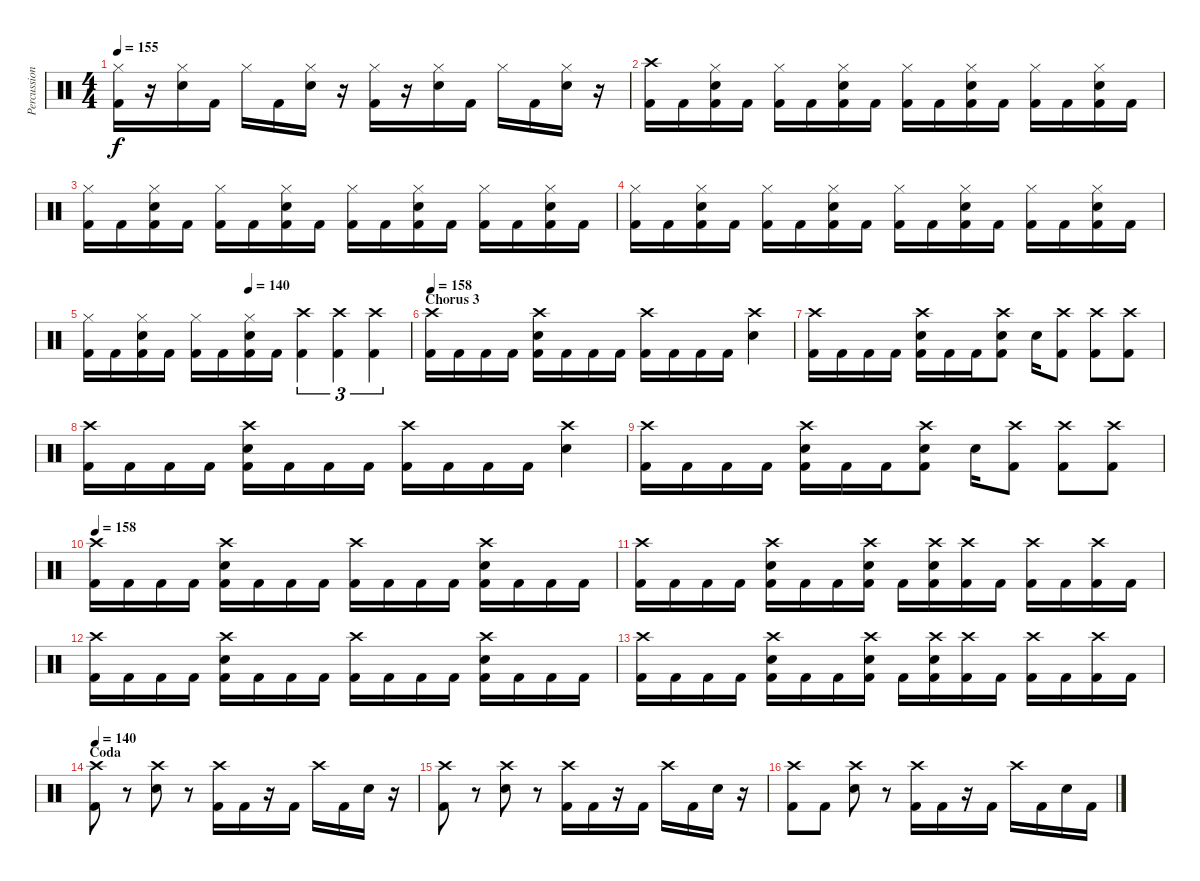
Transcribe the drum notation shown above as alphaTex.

\track ("Percussion" "Percussion") {instrument percussion}
\staff {score}
\articulation defaults
\ts (4 4)
\tempo 155
\clef neutral
\ks c
("Hi-Hat (closed)" "Kick (hit) 2").16{dy f} r.16 ("Hi-Hat (closed)" "Snare (hit) 2").16 "Kick (hit) 2".16 "Hi-Hat (closed)".16 "Kick (hit) 2".16 ("Hi-Hat (closed)" "Snare (hit) 2").16 r.16 ("Hi-Hat (closed)" "Kick (hit) 2").16 r.16 ("Hi-Hat (closed)" "Snare (hit) 2").16 "Kick (hit) 2".16 "Hi-Hat (closed)".16 "Kick (hit) 2".16 ("Hi-Hat (closed)" "Snare (hit) 2").16 r.16 |
("Crash high (hit)" "Kick (hit) 2").16 "Kick (hit) 2".16 ("Hi-Hat (closed)" "Snare (hit) 2" "Kick (hit) 2").16 "Kick (hit) 2".16 ("Hi-Hat (closed)" "Kick (hit) 2").16 "Kick (hit) 2".16 ("Hi-Hat (closed)" "Snare (hit) 2" "Kick (hit) 2").16 "Kick (hit) 2".16 ("Hi-Hat (closed)" "Kick (hit) 2").16 "Kick (hit) 2".16 ("Hi-Hat (closed)" "Snare (hit) 2" "Kick (hit) 2").16 "Kick (hit) 2".16 ("Hi-Hat (closed)" "Kick (hit) 2").16 "Kick (hit) 2".16 ("Hi-Hat (closed)" "Snare (hit) 2" "Kick (hit) 2").16 "Kick (hit) 2".16 |
("Hi-Hat (closed)" "Kick (hit) 2").16 "Kick (hit) 2".16 ("Hi-Hat (closed)" "Snare (hit) 2" "Kick (hit) 2").16 "Kick (hit) 2".16 ("Hi-Hat (closed)" "Kick (hit) 2").16 "Kick (hit) 2".16 ("Hi-Hat (closed)" "Snare (hit) 2" "Kick (hit) 2").16 "Kick (hit) 2".16 ("Hi-Hat (closed)" "Kick (hit) 2").16 "Kick (hit) 2".16 ("Hi-Hat (closed)" "Snare (hit) 2" "Kick (hit) 2").16 "Kick (hit) 2".16 ("Hi-Hat (closed)" "Kick (hit) 2").16 "Kick (hit) 2".16 ("Hi-Hat (closed)" "Snare (hit) 2" "Kick (hit) 2").16 "Kick (hit) 2".16 |
("Hi-Hat (closed)" "Kick (hit) 2").16 "Kick (hit) 2".16 ("Hi-Hat (closed)" "Snare (hit) 2" "Kick (hit) 2").16 "Kick (hit) 2".16 ("Hi-Hat (closed)" "Kick (hit) 2").16 "Kick (hit) 2".16 ("Hi-Hat (closed)" "Snare (hit) 2" "Kick (hit) 2").16 "Kick (hit) 2".16 ("Hi-Hat (closed)" "Kick (hit) 2").16 "Kick (hit) 2".16 ("Hi-Hat (closed)" "Snare (hit) 2" "Kick (hit) 2").16 "Kick (hit) 2".16 ("Hi-Hat (closed)" "Kick (hit) 2").16 "Kick (hit) 2".16 ("Hi-Hat (closed)" "Snare (hit) 2" "Kick (hit) 2").16 "Kick (hit) 2".16 |
\tempo (140 0.5)
("Hi-Hat (closed)" "Kick (hit) 2").16 "Kick (hit) 2".16 ("Hi-Hat (closed)" "Snare (hit) 2" "Kick (hit) 2").16 "Kick (hit) 2".16 ("Hi-Hat (closed)" "Kick (hit) 2").16 "Kick (hit) 2".16 ("Hi-Hat (closed)" "Snare (hit) 2" "Kick (hit) 2").16 "Kick (hit) 2".16 ("Crash high (hit)" "Kick (hit) 2").4{tu (3 2)} ("Crash high (hit)" "Kick (hit) 2").4{tu (3 2)} ("Crash high (hit)" "Kick (hit) 2").4{tu (3 2)} |
\section ("" "Chorus 3")
\tempo 158
("Crash high (hit)" "Kick (hit) 2").16 "Kick (hit) 2".16 "Kick (hit) 2".16 "Kick (hit) 2".16 ("Crash high (hit)" "Snare (hit) 2" "Kick (hit) 2").16 "Kick (hit) 2".16 "Kick (hit) 2".16 "Kick (hit) 2".16 ("Crash high (hit)" "Kick (hit) 2").16 "Kick (hit) 2".16 "Kick (hit) 2".16 "Kick (hit) 2".16 ("Crash high (hit)" "Snare (hit) 2").4 |
("Crash high (hit)" "Kick (hit) 2").16 "Kick (hit) 2".16 "Kick (hit) 2".16 "Kick (hit) 2".16 ("Crash high (hit)" "Snare (hit) 2" "Kick (hit) 2").16 "Kick (hit) 2".16 "Kick (hit) 2".16 ("Crash high (hit)" "Snare (hit) 2" "Kick (hit) 2").8 "Snare (hit) 2".16 ("Crash high (hit)" "Kick (hit) 2").8 ("Crash high (hit)" "Kick (hit) 2").8 ("Crash high (hit)" "Kick (hit) 2").8 |
("Crash high (hit)" "Kick (hit) 2").16 "Kick (hit) 2".16 "Kick (hit) 2".16 "Kick (hit) 2".16 ("Crash high (hit)" "Snare (hit) 2" "Kick (hit) 2").16 "Kick (hit) 2".16 "Kick (hit) 2".16 "Kick (hit) 2".16 ("Crash high (hit)" "Kick (hit) 2").16 "Kick (hit) 2".16 "Kick (hit) 2".16 "Kick (hit) 2".16 ("Crash high (hit)" "Snare (hit) 2").4 |
("Crash high (hit)" "Kick (hit) 2").16 "Kick (hit) 2".16 "Kick (hit) 2".16 "Kick (hit) 2".16 ("Crash high (hit)" "Snare (hit) 2" "Kick (hit) 2").16 "Kick (hit) 2".16 "Kick (hit) 2".16 ("Crash high (hit)" "Snare (hit) 2" "Kick (hit) 2").8 "Snare (hit) 2".16 ("Crash high (hit)" "Kick (hit) 2").8 ("Crash high (hit)" "Kick (hit) 2").8 ("Crash high (hit)" "Kick (hit) 2").8 |
\tempo 158
("Crash high (hit)" "Kick (hit) 2").16 "Kick (hit) 2".16 "Kick (hit) 2".16 "Kick (hit) 2".16 ("Crash high (hit)" "Snare (hit) 2" "Kick (hit) 2").16 "Kick (hit) 2".16 "Kick (hit) 2".16 "Kick (hit) 2".16 ("Crash high (hit)" "Kick (hit) 2").16 "Kick (hit) 2".16 "Kick (hit) 2".16 "Kick (hit) 2".16 ("Crash high (hit)" "Snare (hit) 2" "Kick (hit) 2").16 "Kick (hit) 2".16 "Kick (hit) 2".16 "Kick (hit) 2".16 |
("Crash high (hit)" "Kick (hit) 2").16 "Kick (hit) 2".16 "Kick (hit) 2".16 "Kick (hit) 2".16 ("Crash high (hit)" "Snare (hit) 2" "Kick (hit) 2").16 "Kick (hit) 2".16 "Kick (hit) 2".16 ("Crash high (hit)" "Snare (hit) 2" "Kick (hit) 2").16 "Kick (hit) 2".16 ("Crash high (hit)" "Snare (hit) 2" "Kick (hit) 2").16 ("Crash high (hit)" "Kick (hit) 2").16 "Kick (hit) 2".16 ("Crash high (hit)" "Kick (hit) 2").16 "Kick (hit) 2".16 ("Crash high (hit)" "Kick (hit) 2").16 "Kick (hit) 2".16 |
("Crash high (hit)" "Kick (hit) 2").16 "Kick (hit) 2".16 "Kick (hit) 2".16 "Kick (hit) 2".16 ("Crash high (hit)" "Snare (hit) 2" "Kick (hit) 2").16 "Kick (hit) 2".16 "Kick (hit) 2".16 "Kick (hit) 2".16 ("Crash high (hit)" "Kick (hit) 2").16 "Kick (hit) 2".16 "Kick (hit) 2".16 "Kick (hit) 2".16 ("Crash high (hit)" "Snare (hit) 2" "Kick (hit) 2").16 "Kick (hit) 2".16 "Kick (hit) 2".16 "Kick (hit) 2".16 |
("Crash high (hit)" "Kick (hit) 2").16 "Kick (hit) 2".16 "Kick (hit) 2".16 "Kick (hit) 2".16 ("Crash high (hit)" "Snare (hit) 2" "Kick (hit) 2").16 "Kick (hit) 2".16 "Kick (hit) 2".16 ("Crash high (hit)" "Snare (hit) 2" "Kick (hit) 2").16 "Kick (hit) 2".16 ("Crash high (hit)" "Snare (hit) 2" "Kick (hit) 2").16 ("Crash high (hit)" "Kick (hit) 2").16 "Kick (hit) 2".16 ("Crash high (hit)" "Kick (hit) 2").16 "Kick (hit) 2".16 ("Crash high (hit)" "Kick (hit) 2").16 "Kick (hit) 2".16 |
\section ("" "Coda")
\tempo 140
("Crash high (hit)" "Kick (hit) 2").8 r.8 ("Crash high (hit)" "Snare (hit) 2").8 r.8 ("Crash high (hit)" "Kick (hit) 2").16 "Kick (hit) 2".16 r.16 "Kick (hit) 2".16 "Crash high (hit)".16 "Kick (hit) 2".16 "Snare (hit) 2".16 r.16 |
("Crash high (hit)" "Kick (hit) 2").8 r.8 ("Crash high (hit)" "Snare (hit) 2").8 r.8 ("Crash high (hit)" "Kick (hit) 2").16 "Kick (hit) 2".16 r.16 "Kick (hit) 2".16 "Crash high (hit)".16 "Kick (hit) 2".16 "Snare (hit) 2".16 r.16 |
("Crash high (hit)" "Kick (hit) 2").8 "Kick (hit) 2".8 ("Crash high (hit)" "Snare (hit) 2").8 r.8 ("Crash high (hit)" "Kick (hit) 2").16 "Kick (hit) 2".16 r.16 "Kick (hit) 2".16 "Crash high (hit)".16 "Kick (hit) 2".16 "Snare (hit) 2".16 "Kick (hit) 2".16
